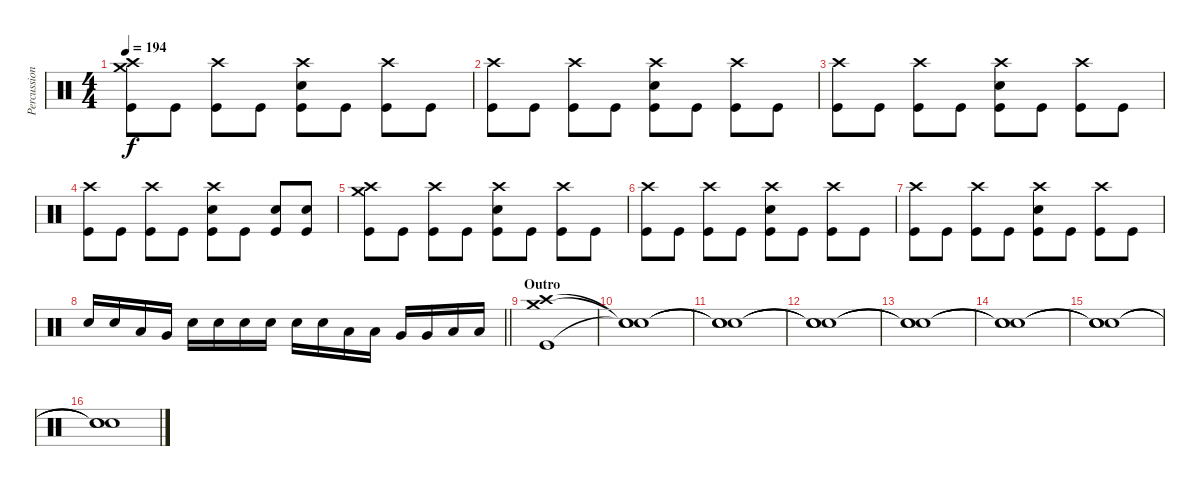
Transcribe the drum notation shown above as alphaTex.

\track ("Percussion" "Percussion") {instrument percussion}
\staff {score}
\articulation defaults
\ts (4 4)
\tempo 194
\clef neutral
\ks c
("Crash medium (hit)" "Crash high (hit)" "Kick (hit)").8{dy f} "Kick (hit)".8 ("Crash high (hit)" "Kick (hit)").8 "Kick (hit)".8 ("Crash high (hit)" "Electric Snare (hit)" "Kick (hit)").8 "Kick (hit)".8 ("Crash high (hit)" "Kick (hit)").8 "Kick (hit)".8 |
("Crash high (hit)" "Kick (hit)").8 "Kick (hit)".8 ("Crash high (hit)" "Kick (hit)").8 "Kick (hit)".8 ("Crash high (hit)" "Electric Snare (hit)" "Kick (hit)").8 "Kick (hit)".8 ("Crash high (hit)" "Kick (hit)").8 "Kick (hit)".8 |
("Crash high (hit)" "Kick (hit)").8 "Kick (hit)".8 ("Crash high (hit)" "Kick (hit)").8 "Kick (hit)".8 ("Crash high (hit)" "Electric Snare (hit)" "Kick (hit)").8 "Kick (hit)".8 ("Crash high (hit)" "Kick (hit)").8 "Kick (hit)".8 |
("Crash high (hit)" "Kick (hit)").8 "Kick (hit)".8 ("Crash high (hit)" "Kick (hit)").8 "Kick (hit)".8 ("Crash high (hit)" "Electric Snare (hit)" "Kick (hit)").8 "Kick (hit)".8 ("Electric Snare (hit)" "Kick (hit)").8 ("Electric Snare (hit)" "Kick (hit)").8 |
("Crash medium (hit)" "Crash high (hit)" "Kick (hit)").8 "Kick (hit)".8 ("Crash high (hit)" "Kick (hit)").8 "Kick (hit)".8 ("Crash high (hit)" "Electric Snare (hit)" "Kick (hit)").8 "Kick (hit)".8 ("Crash high (hit)" "Kick (hit)").8 "Kick (hit)".8 |
("Crash high (hit)" "Kick (hit)").8 "Kick (hit)".8 ("Crash high (hit)" "Kick (hit)").8 "Kick (hit)".8 ("Crash high (hit)" "Electric Snare (hit)" "Kick (hit)").8 "Kick (hit)".8 ("Crash high (hit)" "Kick (hit)").8 "Kick (hit)".8 |
("Crash high (hit)" "Kick (hit)").8 "Kick (hit)".8 ("Crash high (hit)" "Kick (hit)").8 "Kick (hit)".8 ("Crash high (hit)" "Electric Snare (hit)" "Kick (hit)").8 "Kick (hit)".8 ("Crash high (hit)" "Kick (hit)").8 "Kick (hit)".8 |
\barLineRight lightlight "Electric Snare (hit)".16 "Electric Snare (hit)".16 "Low Tom (hit)".16 "Very Low Tom (hit)".16 "Electric Snare (hit)".16 "Electric Snare (hit)".16 "Electric Snare (hit)".16 "Electric Snare (hit)".16 "Electric Snare (hit)".16 "Electric Snare (hit)".16 "Low Tom (hit)".16 "Low Tom (hit)".16 "Very Low Tom (hit)".16 "Very Low Tom (hit)".16 "Low Floor Tom (hit)".16 "Low Floor Tom (hit)".16
|
\section ("" "Outro")
("Crash high (hit)" "Crash medium (hit)" "Kick (hit)").1 |
("Snare (hit)"{t} "Snare (hit)"{t} "Snare (hit)"{t}).1 |
("Snare (hit)"{t} "Snare (hit)"{t} "Snare (hit)"{t}).1 |
("Snare (hit)"{t} "Snare (hit)"{t} "Snare (hit)"{t}).1 |
("Snare (hit)"{t} "Snare (hit)"{t} "Snare (hit)"{t}).1 |
("Snare (hit)"{t} "Snare (hit)"{t} "Snare (hit)"{t}).1 |
("Snare (hit)"{t} "Snare (hit)"{t} "Snare (hit)"{t}).1 |
("Snare (hit)"{t} "Snare (hit)"{t} "Snare (hit)"{t}).1
